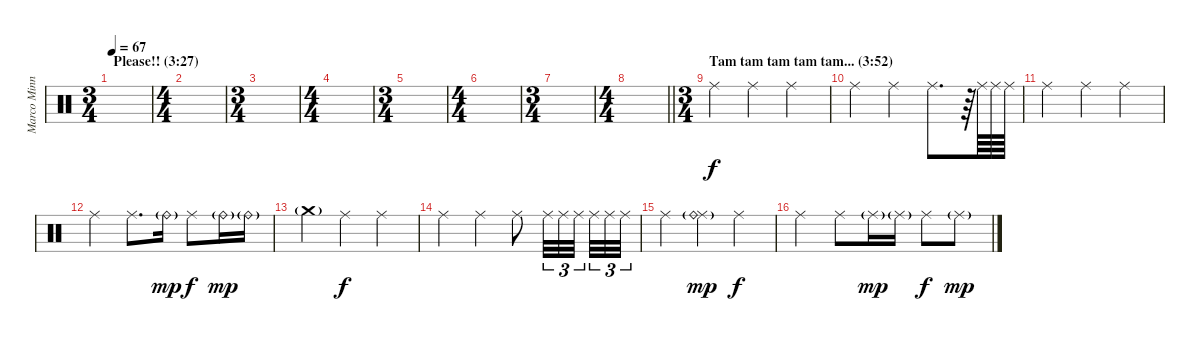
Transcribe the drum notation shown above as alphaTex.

\track ("Marco Minnemann" "Marco Minn") {instrument percussion}
\staff {score}
\articulation defaults
\ts (3 4)
\section ("" "Please!! (3:27)")
\tempo 67
\clef neutral
\ks c
|
\ts (4 4)
|
\ts (3 4)
|
\ts (4 4)
|
\ts (3 4)
|
\ts (4 4)
|
\ts (3 4)
|
\ts (4 4)
\barLineRight lightlight
|
\ts (3 4)
\section ("" "Tam tam tam tam tam... (3:52)")
"Ride (middle)".4 "Ride (middle)".4 "Ride (middle)".4 |
"Ride (middle)".4 "Ride (middle)".4 "Ride (middle)".8{d} r.64 "Ride (middle)".64 "Ride (middle)".64 "Ride (middle)".64 |
"Ride (middle)".4 "Ride (middle)".4 "Ride (middle)".4 |
"Ride (middle)".4 "Ride (middle)".8{d} "Ride (bell)"{g}.16{dy mp} "Ride (middle)".8{dy f} "Ride (bell)"{g}.16{dy mp} "Ride (bell)"{g}.16 |
"Crash medium (hit)"{g}.4 "Ride (middle)".4{dy f} "Ride (middle)".4 |
"Ride (middle)".4 "Ride (middle)".4 "Ride (middle)".8 "Ride (middle)".32{tu (3 2)} "Ride (middle)".32{tu (3 2)} "Ride (middle)".32{tu (3 2) beam splitsecondary} "Ride (middle)".32{tu (3 2)} "Ride (middle)".32{tu (3 2)} "Ride (middle)".32{tu (3 2)} |
"Ride (middle)".4 ("Ride (middle)" "Ride (bell)"{g}).4{dy mp} "Ride (middle)".4{dy f} |
"Ride (middle)".4 "Ride (middle)".8 "Ride (middle)"{g}.16{dy mp} "Ride (middle)"{g}.16 "Ride (middle)".8{dy f} "Ride (middle)"{g}.8{dy mp}
